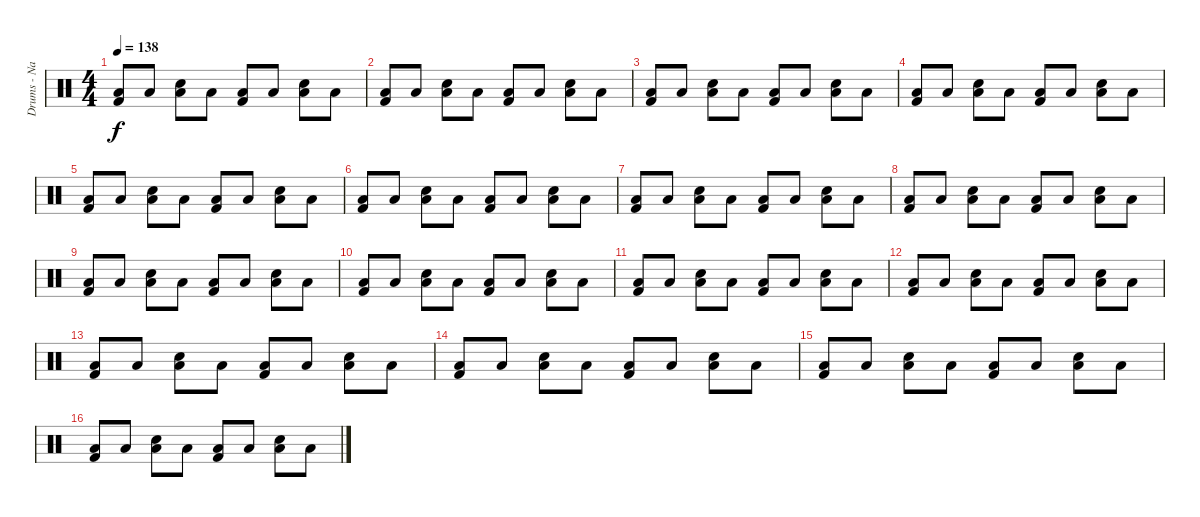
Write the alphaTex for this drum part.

\track ("Drums - Nathan" "Drums - Na") {instrument percussion}
\staff {score}
\articulation defaults
\ts (4 4)
\tempo 138
\clef neutral
\ks c
("Low Tom (hit)" "Kick (hit) 2").8{dy f} "Low Tom (hit)".8 ("Electric Snare (hit)" "Low Tom (hit)").8 "Low Tom (hit)".8 ("Low Tom (hit)" "Kick (hit) 2").8 "Low Tom (hit)".8 ("Electric Snare (hit)" "Low Tom (hit)").8 "Low Tom (hit)".8 |
("Low Tom (hit)" "Kick (hit) 2").8 "Low Tom (hit)".8 ("Electric Snare (hit)" "Low Tom (hit)").8 "Low Tom (hit)".8 ("Low Tom (hit)" "Kick (hit) 2").8 "Low Tom (hit)".8 ("Electric Snare (hit)" "Low Tom (hit)").8 "Low Tom (hit)".8 |
("Low Tom (hit)" "Kick (hit) 2").8 "Low Tom (hit)".8 ("Electric Snare (hit)" "Low Tom (hit)").8 "Low Tom (hit)".8 ("Low Tom (hit)" "Kick (hit) 2").8 "Low Tom (hit)".8 ("Electric Snare (hit)" "Low Tom (hit)").8 "Low Tom (hit)".8 |
("Low Tom (hit)" "Kick (hit) 2").8 "Low Tom (hit)".8 ("Electric Snare (hit)" "Low Tom (hit)").8 "Low Tom (hit)".8 ("Low Tom (hit)" "Kick (hit) 2").8 "Low Tom (hit)".8 ("Electric Snare (hit)" "Low Tom (hit)").8 "Low Tom (hit)".8 |
("Low Tom (hit)" "Kick (hit) 2").8 "Low Tom (hit)".8 ("Electric Snare (hit)" "Low Tom (hit)").8 "Low Tom (hit)".8 ("Low Tom (hit)" "Kick (hit) 2").8 "Low Tom (hit)".8 ("Electric Snare (hit)" "Low Tom (hit)").8 "Low Tom (hit)".8 |
("Low Tom (hit)" "Kick (hit) 2").8 "Low Tom (hit)".8 ("Electric Snare (hit)" "Low Tom (hit)").8 "Low Tom (hit)".8 ("Low Tom (hit)" "Kick (hit) 2").8 "Low Tom (hit)".8 ("Electric Snare (hit)" "Low Tom (hit)").8 "Low Tom (hit)".8 |
("Low Tom (hit)" "Kick (hit) 2").8 "Low Tom (hit)".8 ("Electric Snare (hit)" "Low Tom (hit)").8 "Low Tom (hit)".8 ("Low Tom (hit)" "Kick (hit) 2").8 "Low Tom (hit)".8 ("Electric Snare (hit)" "Low Tom (hit)").8 "Low Tom (hit)".8 |
("Low Tom (hit)" "Kick (hit) 2").8 "Low Tom (hit)".8 ("Electric Snare (hit)" "Low Tom (hit)").8 "Low Tom (hit)".8 ("Low Tom (hit)" "Kick (hit) 2").8 "Low Tom (hit)".8 ("Electric Snare (hit)" "Low Tom (hit)").8 "Low Tom (hit)".8 |
("Low Tom (hit)" "Kick (hit) 2").8 "Low Tom (hit)".8 ("Electric Snare (hit)" "Low Tom (hit)").8 "Low Tom (hit)".8 ("Low Tom (hit)" "Kick (hit) 2").8 "Low Tom (hit)".8 ("Electric Snare (hit)" "Low Tom (hit)").8 "Low Tom (hit)".8 |
("Low Tom (hit)" "Kick (hit) 2").8 "Low Tom (hit)".8 ("Electric Snare (hit)" "Low Tom (hit)").8 "Low Tom (hit)".8 ("Low Tom (hit)" "Kick (hit) 2").8 "Low Tom (hit)".8 ("Electric Snare (hit)" "Low Tom (hit)").8 "Low Tom (hit)".8 |
("Low Tom (hit)" "Kick (hit) 2").8 "Low Tom (hit)".8 ("Electric Snare (hit)" "Low Tom (hit)").8 "Low Tom (hit)".8 ("Low Tom (hit)" "Kick (hit) 2").8 "Low Tom (hit)".8 ("Electric Snare (hit)" "Low Tom (hit)").8 "Low Tom (hit)".8 |
("Low Tom (hit)" "Kick (hit) 2").8 "Low Tom (hit)".8 ("Electric Snare (hit)" "Low Tom (hit)").8 "Low Tom (hit)".8 ("Low Tom (hit)" "Kick (hit) 2").8 "Low Tom (hit)".8 ("Electric Snare (hit)" "Low Tom (hit)").8 "Low Tom (hit)".8 |
("Low Tom (hit)" "Kick (hit) 2").8 "Low Tom (hit)".8 ("Electric Snare (hit)" "Low Tom (hit)").8 "Low Tom (hit)".8 ("Low Tom (hit)" "Kick (hit) 2").8 "Low Tom (hit)".8 ("Electric Snare (hit)" "Low Tom (hit)").8 "Low Tom (hit)".8 |
("Low Tom (hit)" "Kick (hit) 2").8 "Low Tom (hit)".8 ("Electric Snare (hit)" "Low Tom (hit)").8 "Low Tom (hit)".8 ("Low Tom (hit)" "Kick (hit) 2").8 "Low Tom (hit)".8 ("Electric Snare (hit)" "Low Tom (hit)").8 "Low Tom (hit)".8 |
("Low Tom (hit)" "Kick (hit) 2").8 "Low Tom (hit)".8 ("Electric Snare (hit)" "Low Tom (hit)").8 "Low Tom (hit)".8 ("Low Tom (hit)" "Kick (hit) 2").8 "Low Tom (hit)".8 ("Electric Snare (hit)" "Low Tom (hit)").8 "Low Tom (hit)".8 |
("Low Tom (hit)" "Kick (hit) 2").8 "Low Tom (hit)".8 ("Electric Snare (hit)" "Low Tom (hit)").8 "Low Tom (hit)".8 ("Low Tom (hit)" "Kick (hit) 2").8 "Low Tom (hit)".8 ("Electric Snare (hit)" "Low Tom (hit)").8 "Low Tom (hit)".8
